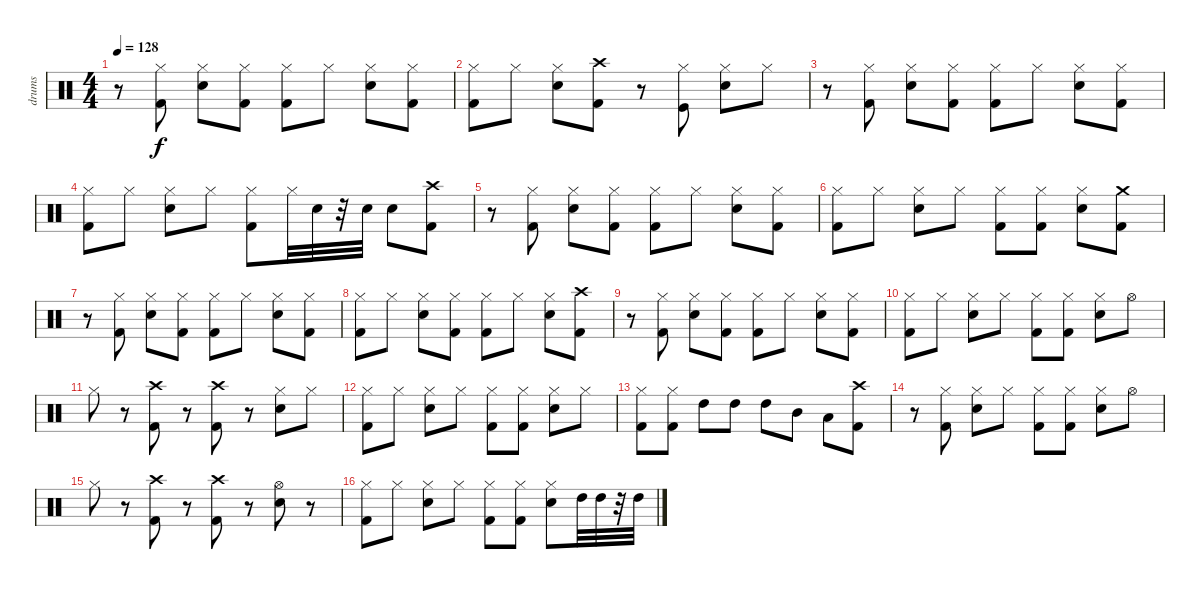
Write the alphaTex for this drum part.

\track ("drums" "drums") {instrument percussion}
\staff {score}
\articulation defaults
\ts (4 4)
\tempo 128
\clef neutral
\ks c
r.8{dy f} ("Kick (hit) 2" "Hi-Hat (closed)").8 ("Snare (hit) 2" "Hi-Hat (closed)").8 ("Kick (hit) 2" "Hi-Hat (closed)").8 ("Kick (hit) 2" "Hi-Hat (closed)").8 "Hi-Hat (closed)".8 ("Snare (hit) 2" "Hi-Hat (closed)").8 ("Kick (hit) 2" "Hi-Hat (closed)").8 |
("Kick (hit) 2" "Hi-Hat (closed)").8 "Hi-Hat (closed)".8 ("Snare (hit) 2" "Hi-Hat (closed)").8 ("Kick (hit) 2" "Crash high (hit)").8 r.8 ("Kick (hit)" "Hi-Hat (closed)").8 ("Snare (hit) 2" "Hi-Hat (closed)").8 "Hi-Hat (closed)".8 |
r.8 ("Kick (hit) 2" "Hi-Hat (closed)").8 ("Snare (hit) 2" "Hi-Hat (closed)").8 ("Kick (hit) 2" "Hi-Hat (closed)").8 ("Kick (hit) 2" "Hi-Hat (closed)").8 "Hi-Hat (closed)".8 ("Snare (hit) 2" "Hi-Hat (closed)").8 ("Kick (hit) 2" "Hi-Hat (closed)").8 |
("Kick (hit) 2" "Hi-Hat (closed)").8 "Hi-Hat (closed)".8 ("Snare (hit) 2" "Hi-Hat (closed)").8 "Hi-Hat (closed)".8 ("Kick (hit) 2" "Hi-Hat (closed)").8 "Hi-Hat (closed)".32 "Snare (hit) 2".32 r.32 "Snare (hit) 2".32 "Snare (hit) 2".8 ("Crash high (hit)" "Kick (hit) 2").8 |
r.8 ("Kick (hit) 2" "Hi-Hat (closed)").8 ("Snare (hit) 2" "Hi-Hat (closed)").8 ("Kick (hit) 2" "Hi-Hat (closed)").8 ("Kick (hit) 2" "Hi-Hat (closed)").8 "Hi-Hat (closed)".8 ("Snare (hit) 2" "Hi-Hat (closed)").8 ("Kick (hit) 2" "Hi-Hat (closed)").8 |
("Kick (hit) 2" "Hi-Hat (closed)").8 "Hi-Hat (closed)".8 ("Snare (hit) 2" "Hi-Hat (closed)").8 "Hi-Hat (closed)".8 ("Kick (hit) 2" "Hi-Hat (closed)").8 ("Kick (hit) 2" "Hi-Hat (closed)").8 ("Snare (hit) 2" "Hi-Hat (closed)").8 ("Crash medium (hit)" "Kick (hit) 2").8 |
r.8 ("Kick (hit) 2" "Hi-Hat (closed)").8 ("Snare (hit) 2" "Hi-Hat (closed)").8 ("Kick (hit) 2" "Hi-Hat (closed)").8 ("Kick (hit) 2" "Hi-Hat (closed)").8 "Hi-Hat (closed)".8 ("Snare (hit) 2" "Hi-Hat (closed)").8 ("Kick (hit) 2" "Hi-Hat (closed)").8 |
("Kick (hit) 2" "Hi-Hat (closed)").8 "Hi-Hat (closed)".8 ("Snare (hit) 2" "Hi-Hat (closed)").8 ("Kick (hit) 2" "Hi-Hat (closed)").8 ("Kick (hit) 2" "Hi-Hat (closed)").8 "Hi-Hat (closed)".8 ("Snare (hit) 2" "Hi-Hat (closed)").8 ("Kick (hit) 2" "Crash high (hit)").8 |
r.8 ("Kick (hit) 2" "Hi-Hat (closed)").8 ("Snare (hit) 2" "Hi-Hat (closed)").8 ("Kick (hit) 2" "Hi-Hat (closed)").8 ("Kick (hit) 2" "Hi-Hat (closed)").8 "Hi-Hat (closed)".8 ("Snare (hit) 2" "Hi-Hat (closed)").8 ("Kick (hit) 2" "Hi-Hat (closed)").8 |
("Kick (hit) 2" "Hi-Hat (closed)").8 "Hi-Hat (closed)".8 ("Snare (hit) 2" "Hi-Hat (closed)").8 "Hi-Hat (closed)".8 ("Kick (hit) 2" "Hi-Hat (closed)").8 ("Kick (hit) 2" "Hi-Hat (closed)").8 ("Snare (hit) 2" "Hi-Hat (closed)").8 "Hi-Hat (open)".8 |
"Hi-Hat (closed)".8 r.8 ("Kick (hit) 2" "Crash high (hit)").8 r.8 ("Crash high (hit)" "Kick (hit) 2").8 r.8 ("Snare (hit) 2" "Hi-Hat (closed)").8 "Hi-Hat (closed)".8 |
("Kick (hit) 2" "Hi-Hat (closed)").8 "Hi-Hat (closed)".8 ("Snare (hit) 2" "Hi-Hat (closed)").8 "Hi-Hat (closed)".8 ("Kick (hit) 2" "Hi-Hat (closed)").8 ("Kick (hit) 2" "Hi-Hat (closed)").8 ("Snare (hit) 2" "Hi-Hat (closed)").8 "Hi-Hat (closed)".8 |
("Kick (hit) 2" "Hi-Hat (closed)").8 ("Kick (hit) 2" "Hi-Hat (closed)").8 "High Tom (hit)".8 "High Tom (hit)".8 "High Tom (hit)".8 "Mid Tom (hit)".8 "Low Tom (hit)".8 ("Kick (hit) 2" "Crash high (hit)").8 |
r.8 ("Kick (hit) 2" "Hi-Hat (closed)").8 ("Snare (hit) 2" "Hi-Hat (closed)").8 "Hi-Hat (closed)".8 ("Kick (hit) 2" "Hi-Hat (closed)").8 ("Kick (hit) 2" "Hi-Hat (closed)").8 ("Snare (hit) 2" "Hi-Hat (closed)").8 "Hi-Hat (open)".8 |
"Hi-Hat (closed)".8 r.8 ("Kick (hit) 2" "Crash high (hit)").8 r.8 ("Kick (hit) 2" "Crash high (hit)").8 r.8 ("Snare (hit) 2" "Hi-Hat (open)").8 r.8 |
("Kick (hit) 2" "Hi-Hat (closed)").8 "Hi-Hat (closed)".8 ("Snare (hit) 2" "Hi-Hat (closed)").8 "Hi-Hat (closed)".8 ("Kick (hit) 2" "Hi-Hat (closed)").8 ("Kick (hit) 2" "Hi-Hat (closed)").8 ("Snare (hit) 2" "Hi-Hat (closed)").8 "High Tom (hit)".32 "High Tom (hit)".32 r.32 "High Tom (hit)".32
